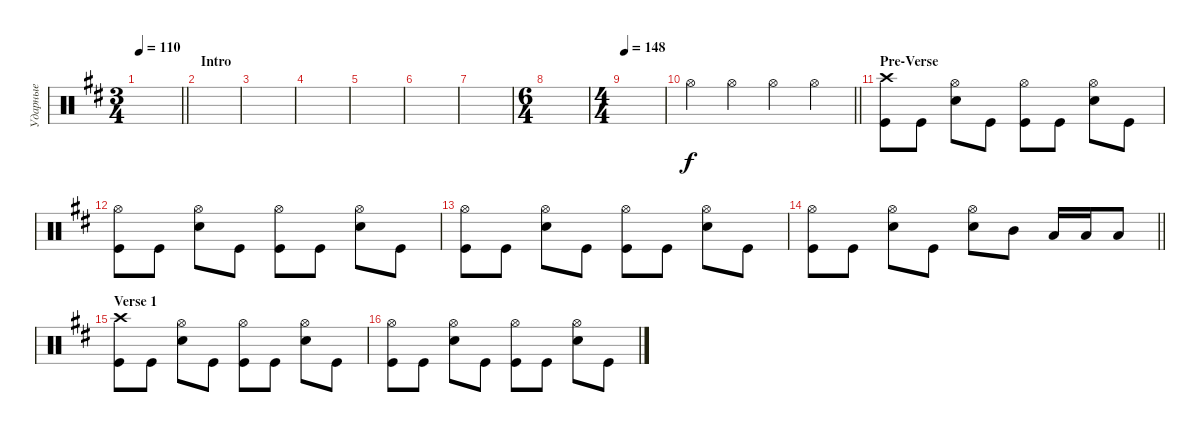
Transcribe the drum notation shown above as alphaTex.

\track ("Ударные" "Ударные") {instrument percussion}
\staff {score}
\articulation defaults
\ts (3 4)
\tempo 110
\clef neutral
\barLineRight lightlight
\ks bminor
|
\section ("" "Intro")
|
|
|
|
|
|
\ts (6 4)
|
\ts (4 4)
\tempo 148
|
\barLineRight lightlight "Hi-Hat (open)".4 "Hi-Hat (open)".4 "Hi-Hat (open)".4 "Hi-Hat (open)".4
|
\section ("" "Pre-Verse")
("Crash high (hit)" "Kick (hit)").8 "Kick (hit)".8 ("Snare (hit) 2" "Hi-Hat (open)").8 "Kick (hit)".8 ("Kick (hit)" "Hi-Hat (open)").8 "Kick (hit)".8 ("Snare (hit) 2" "Hi-Hat (open)").8 "Kick (hit)".8 |
("Hi-Hat (open)" "Kick (hit)").8 "Kick (hit)".8 ("Snare (hit) 2" "Hi-Hat (open)").8 "Kick (hit)".8 ("Kick (hit)" "Hi-Hat (open)").8 "Kick (hit)".8 ("Snare (hit) 2" "Hi-Hat (open)").8 "Kick (hit)".8 |
("Hi-Hat (open)" "Kick (hit)").8 "Kick (hit)".8 ("Snare (hit) 2" "Hi-Hat (open)").8 "Kick (hit)".8 ("Kick (hit)" "Hi-Hat (open)").8 "Kick (hit)".8 ("Snare (hit) 2" "Hi-Hat (open)").8 "Kick (hit)".8 |
\barLineRight lightlight
("Hi-Hat (open)" "Kick (hit)").8 "Kick (hit)".8 ("Snare (hit) 2" "Hi-Hat (open)").8 "Kick (hit)".8 ("Snare (hit) 2" "Hi-Hat (open)").8 "Mid Tom (hit)".8 "Low Tom (hit)".16 "Low Tom (hit)".16 "Low Tom (hit)".8 |
\section ("" "Verse 1")
("Crash high (hit)" "Kick (hit)").8 "Kick (hit)".8 ("Snare (hit) 2" "Hi-Hat (open)").8 "Kick (hit)".8 ("Kick (hit)" "Hi-Hat (open)").8 "Kick (hit)".8 ("Snare (hit) 2" "Hi-Hat (open)").8 "Kick (hit)".8 |
("Hi-Hat (open)" "Kick (hit)").8 "Kick (hit)".8 ("Snare (hit) 2" "Hi-Hat (open)").8 "Kick (hit)".8 ("Kick (hit)" "Hi-Hat (open)").8 "Kick (hit)".8 ("Snare (hit) 2" "Hi-Hat (open)").8 "Kick (hit)".8
